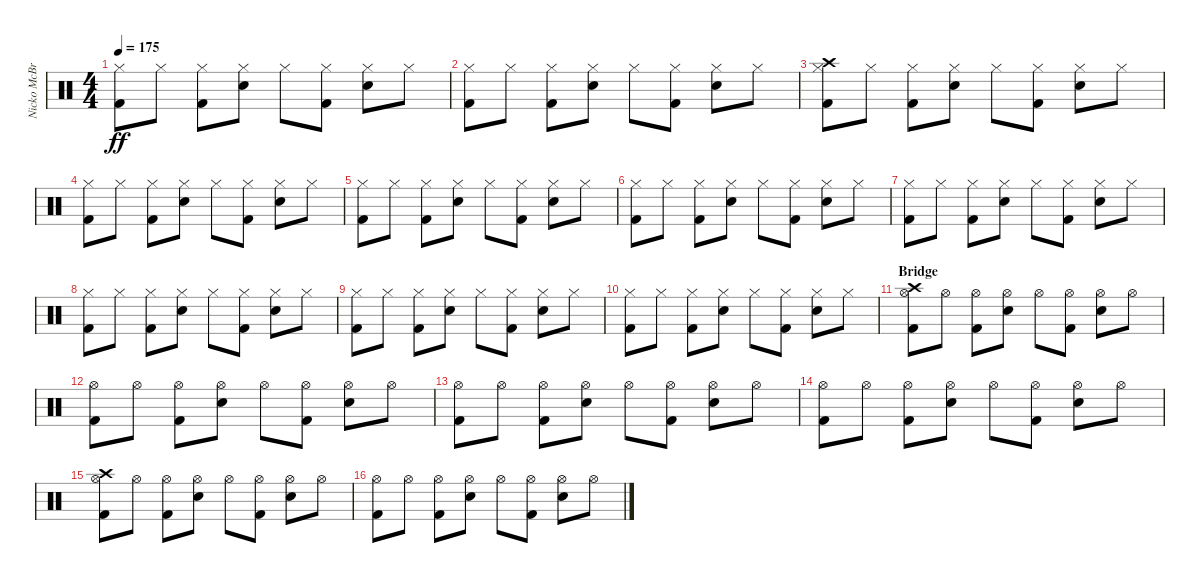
\track ("Nicko McBrain" "Nicko McBr") {instrument percussion}
\staff {score}
\articulation defaults
\ts (4 4)
\tempo 175
\clef neutral
\ks c
("Kick (hit) 2" "Hi-Hat (closed)").8{dy ff} "Hi-Hat (closed)".8 ("Kick (hit) 2" "Hi-Hat (closed)").8 ("Snare (hit) 2" "Hi-Hat (closed)").8 "Hi-Hat (closed)".8 ("Kick (hit) 2" "Hi-Hat (closed)").8 ("Snare (hit) 2" "Hi-Hat (closed)").8 "Hi-Hat (closed)".8 |
("Kick (hit) 2" "Hi-Hat (closed)").8 "Hi-Hat (closed)".8 ("Kick (hit) 2" "Hi-Hat (closed)").8 ("Snare (hit) 2" "Hi-Hat (closed)").8 "Hi-Hat (closed)".8 ("Kick (hit) 2" "Hi-Hat (closed)").8 ("Snare (hit) 2" "Hi-Hat (closed)").8 "Hi-Hat (closed)".8 |
("Kick (hit) 2" "Hi-Hat (closed)" "Crash high (hit)").8 "Hi-Hat (closed)".8 ("Kick (hit) 2" "Hi-Hat (closed)").8 ("Snare (hit) 2" "Hi-Hat (closed)").8 "Hi-Hat (closed)".8 ("Kick (hit) 2" "Hi-Hat (closed)").8 ("Snare (hit) 2" "Hi-Hat (closed)").8 "Hi-Hat (closed)".8 |
("Kick (hit) 2" "Hi-Hat (closed)").8 "Hi-Hat (closed)".8 ("Kick (hit) 2" "Hi-Hat (closed)").8 ("Snare (hit) 2" "Hi-Hat (closed)").8 "Hi-Hat (closed)".8 ("Kick (hit) 2" "Hi-Hat (closed)").8 ("Snare (hit) 2" "Hi-Hat (closed)").8 "Hi-Hat (closed)".8 |
("Kick (hit) 2" "Hi-Hat (closed)").8 "Hi-Hat (closed)".8 ("Kick (hit) 2" "Hi-Hat (closed)").8 ("Snare (hit) 2" "Hi-Hat (closed)").8 "Hi-Hat (closed)".8 ("Kick (hit) 2" "Hi-Hat (closed)").8 ("Snare (hit) 2" "Hi-Hat (closed)").8 "Hi-Hat (closed)".8 |
("Kick (hit) 2" "Hi-Hat (closed)").8 "Hi-Hat (closed)".8 ("Kick (hit) 2" "Hi-Hat (closed)").8 ("Snare (hit) 2" "Hi-Hat (closed)").8 "Hi-Hat (closed)".8 ("Kick (hit) 2" "Hi-Hat (closed)").8 ("Snare (hit) 2" "Hi-Hat (closed)").8 "Hi-Hat (closed)".8 |
("Kick (hit) 2" "Hi-Hat (closed)").8 "Hi-Hat (closed)".8 ("Kick (hit) 2" "Hi-Hat (closed)").8 ("Snare (hit) 2" "Hi-Hat (closed)").8 "Hi-Hat (closed)".8 ("Kick (hit) 2" "Hi-Hat (closed)").8 ("Snare (hit) 2" "Hi-Hat (closed)").8 "Hi-Hat (closed)".8 |
("Kick (hit) 2" "Hi-Hat (closed)").8 "Hi-Hat (closed)".8 ("Kick (hit) 2" "Hi-Hat (closed)").8 ("Snare (hit) 2" "Hi-Hat (closed)").8 "Hi-Hat (closed)".8 ("Kick (hit) 2" "Hi-Hat (closed)").8 ("Snare (hit) 2" "Hi-Hat (closed)").8 "Hi-Hat (closed)".8 |
("Kick (hit) 2" "Hi-Hat (closed)").8 "Hi-Hat (closed)".8 ("Kick (hit) 2" "Hi-Hat (closed)").8 ("Snare (hit) 2" "Hi-Hat (closed)").8 "Hi-Hat (closed)".8 ("Kick (hit) 2" "Hi-Hat (closed)").8 ("Snare (hit) 2" "Hi-Hat (closed)").8 "Hi-Hat (closed)".8 |
("Kick (hit) 2" "Hi-Hat (closed)").8 "Hi-Hat (closed)".8 ("Kick (hit) 2" "Hi-Hat (closed)").8 ("Snare (hit) 2" "Hi-Hat (closed)").8 "Hi-Hat (closed)".8 ("Kick (hit) 2" "Hi-Hat (closed)").8 ("Snare (hit) 2" "Hi-Hat (closed)").8 "Hi-Hat (closed)".8 |
\section ("" "Bridge")
("Kick (hit) 2" "Hi-Hat (open)" "Crash high (hit)").8 "Hi-Hat (open)".8 ("Kick (hit) 2" "Hi-Hat (open)").8 ("Snare (hit) 2" "Hi-Hat (open)").8 "Hi-Hat (open)".8 ("Kick (hit) 2" "Hi-Hat (open)").8 ("Snare (hit) 2" "Hi-Hat (open)").8 "Hi-Hat (open)".8 |
("Kick (hit) 2" "Hi-Hat (open)").8 "Hi-Hat (open)".8 ("Kick (hit) 2" "Hi-Hat (open)").8 ("Snare (hit) 2" "Hi-Hat (open)").8 "Hi-Hat (open)".8 ("Kick (hit) 2" "Hi-Hat (open)").8 ("Snare (hit) 2" "Hi-Hat (open)").8 "Hi-Hat (open)".8 |
("Kick (hit) 2" "Hi-Hat (open)").8 "Hi-Hat (open)".8 ("Kick (hit) 2" "Hi-Hat (open)").8 ("Snare (hit) 2" "Hi-Hat (open)").8 "Hi-Hat (open)".8 ("Kick (hit) 2" "Hi-Hat (open)").8 ("Snare (hit) 2" "Hi-Hat (open)").8 "Hi-Hat (open)".8 |
("Kick (hit) 2" "Hi-Hat (open)").8 "Hi-Hat (open)".8 ("Kick (hit) 2" "Hi-Hat (open)").8 ("Snare (hit) 2" "Hi-Hat (open)").8 "Hi-Hat (open)".8 ("Kick (hit) 2" "Hi-Hat (open)").8 ("Snare (hit) 2" "Hi-Hat (open)").8 "Hi-Hat (open)".8 |
("Kick (hit) 2" "Hi-Hat (open)" "Crash high (hit)").8 "Hi-Hat (open)".8 ("Kick (hit) 2" "Hi-Hat (open)").8 ("Snare (hit) 2" "Hi-Hat (open)").8 "Hi-Hat (open)".8 ("Kick (hit) 2" "Hi-Hat (open)").8 ("Snare (hit) 2" "Hi-Hat (open)").8 "Hi-Hat (open)".8 |
("Kick (hit) 2" "Hi-Hat (open)").8 "Hi-Hat (open)".8 ("Kick (hit) 2" "Hi-Hat (open)").8 ("Snare (hit) 2" "Hi-Hat (open)").8 "Hi-Hat (open)".8 ("Kick (hit) 2" "Hi-Hat (open)").8 ("Snare (hit) 2" "Hi-Hat (open)").8 "Hi-Hat (open)".8
